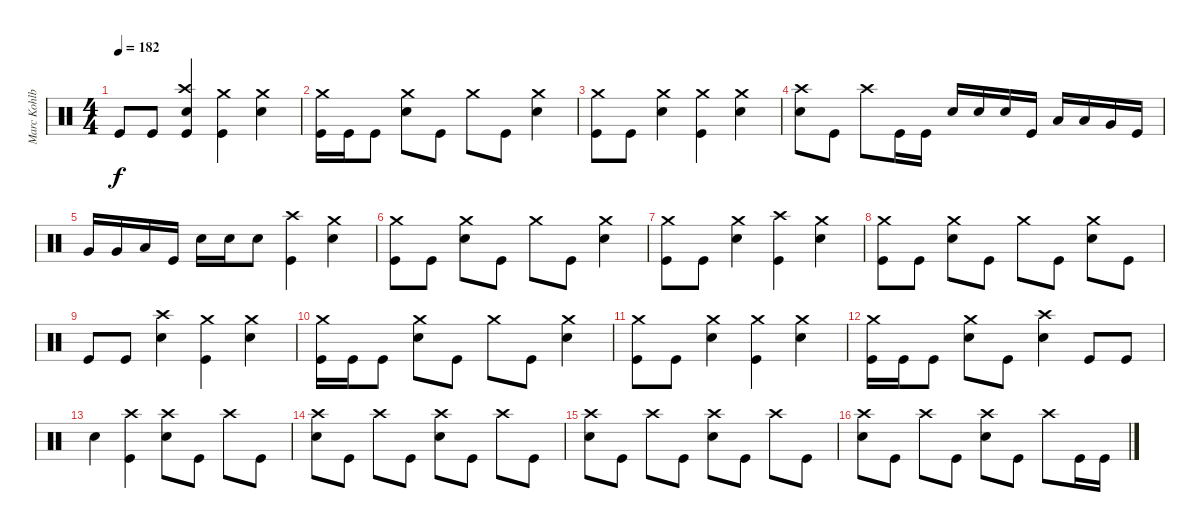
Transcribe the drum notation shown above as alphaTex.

\track ("Marc Kohlbry" "Marc Kohlb") {instrument percussion}
\staff {score}
\articulation defaults
\ts (4 4)
\tempo 182
\clef neutral
\ks c "Kick (hit)".8{dy f} "Kick (hit)".8
("Crash high (hit)" "Electric Snare (hit)" "Kick (hit)").4 ("Crash medium (hit)" "Kick (hit)").4 ("Crash medium (hit)" "Electric Snare (hit)").4 |
("Crash medium (hit)" "Kick (hit)").16 "Kick (hit)".16 "Kick (hit)".8 ("Crash medium (hit)" "Electric Snare (hit)").8 "Kick (hit)".8 "Crash medium (hit)".8 "Kick (hit)".8 ("Crash medium (hit)" "Electric Snare (hit)").4 |
("Crash medium (hit)" "Kick (hit)").8 "Kick (hit)".8 ("Crash medium (hit)" "Electric Snare (hit)").4 ("Crash medium (hit)" "Kick (hit)").4 ("Crash medium (hit)" "Electric Snare (hit)").4 |
("Crash high (hit)" "Electric Snare (hit)").8 "Kick (hit)".8 "Crash high (hit)".8 "Kick (hit)".16 "Kick (hit)".16 "Electric Snare (hit)".16 "Electric Snare (hit)".16 "Electric Snare (hit)".16 "Kick (hit)".16 "Low Tom (hit)".16 "Low Tom (hit)".16 "Very Low Tom (hit)".16 "Kick (hit)".16 |
"Very Low Tom (hit)".16 "Very Low Tom (hit)".16 "Low Floor Tom (hit)".16 "Kick (hit)".16 "Electric Snare (hit)".16 "Electric Snare (hit)".16 "Electric Snare (hit)".8 ("Crash high (hit)" "Kick (hit)").4 ("Crash medium (hit)" "Electric Snare (hit)").4 |
("Crash medium (hit)" "Kick (hit)").8 "Kick (hit)".8 ("Crash medium (hit)" "Electric Snare (hit)").8 "Kick (hit)".8 "Crash medium (hit)".8 "Kick (hit)".8 ("Crash medium (hit)" "Electric Snare (hit)").4 |
("Crash medium (hit)" "Kick (hit)").8 "Kick (hit)".8 ("Crash medium (hit)" "Electric Snare (hit)").4 ("Crash high (hit)" "Kick (hit)").4 ("Crash medium (hit)" "Electric Snare (hit)").4 |
("Crash medium (hit)" "Kick (hit)").8 "Kick (hit)".8 ("Crash medium (hit)" "Electric Snare (hit)").8 "Kick (hit)".8 "Crash medium (hit)".8 "Kick (hit)".8 ("Crash medium (hit)" "Electric Snare (hit)").8 "Kick (hit)".8 |
"Kick (hit)".8 "Kick (hit)".8 ("Crash high (hit)" "Electric Snare (hit)").4 ("Crash medium (hit)" "Kick (hit)").4 ("Crash medium (hit)" "Electric Snare (hit)").4 |
("Crash medium (hit)" "Kick (hit)").16 "Kick (hit)".16 "Kick (hit)".8 ("Crash medium (hit)" "Electric Snare (hit)").8 "Kick (hit)".8 "Crash medium (hit)".8 "Kick (hit)".8 ("Crash medium (hit)" "Electric Snare (hit)").4 |
("Crash medium (hit)" "Kick (hit)").8 "Kick (hit)".8 ("Crash medium (hit)" "Electric Snare (hit)").4 ("Crash medium (hit)" "Kick (hit)").4 ("Crash medium (hit)" "Electric Snare (hit)").4 |
("Crash medium (hit)" "Kick (hit)").16 "Kick (hit)".16 "Kick (hit)".8 ("Crash medium (hit)" "Electric Snare (hit)").8 "Kick (hit)".8 ("Crash high (hit)" "Electric Snare (hit)").4 "Kick (hit)".8 "Kick (hit)".8 |
"Electric Snare (hit)".4 ("Crash high (hit)" "Kick (hit)").4 ("Crash high (hit)" "Electric Snare (hit)").8 "Kick (hit)".8 "Crash high (hit)".8 "Kick (hit)".8 |
("Crash high (hit)" "Electric Snare (hit)").8 "Kick (hit)".8 "Crash high (hit)".8 "Kick (hit)".8 ("Crash high (hit)" "Electric Snare (hit)").8 "Kick (hit)".8 "Crash high (hit)".8 "Kick (hit)".8 |
("Crash high (hit)" "Electric Snare (hit)").8 "Kick (hit)".8 "Crash high (hit)".8 "Kick (hit)".8 ("Crash high (hit)" "Electric Snare (hit)").8 "Kick (hit)".8 "Crash high (hit)".8 "Kick (hit)".8 |
("Crash high (hit)" "Electric Snare (hit)").8 "Kick (hit)".8 "Crash high (hit)".8 "Kick (hit)".8 ("Crash high (hit)" "Electric Snare (hit)").8 "Kick (hit)".8 "Crash high (hit)".8 "Kick (hit)".16 "Kick (hit)".16
